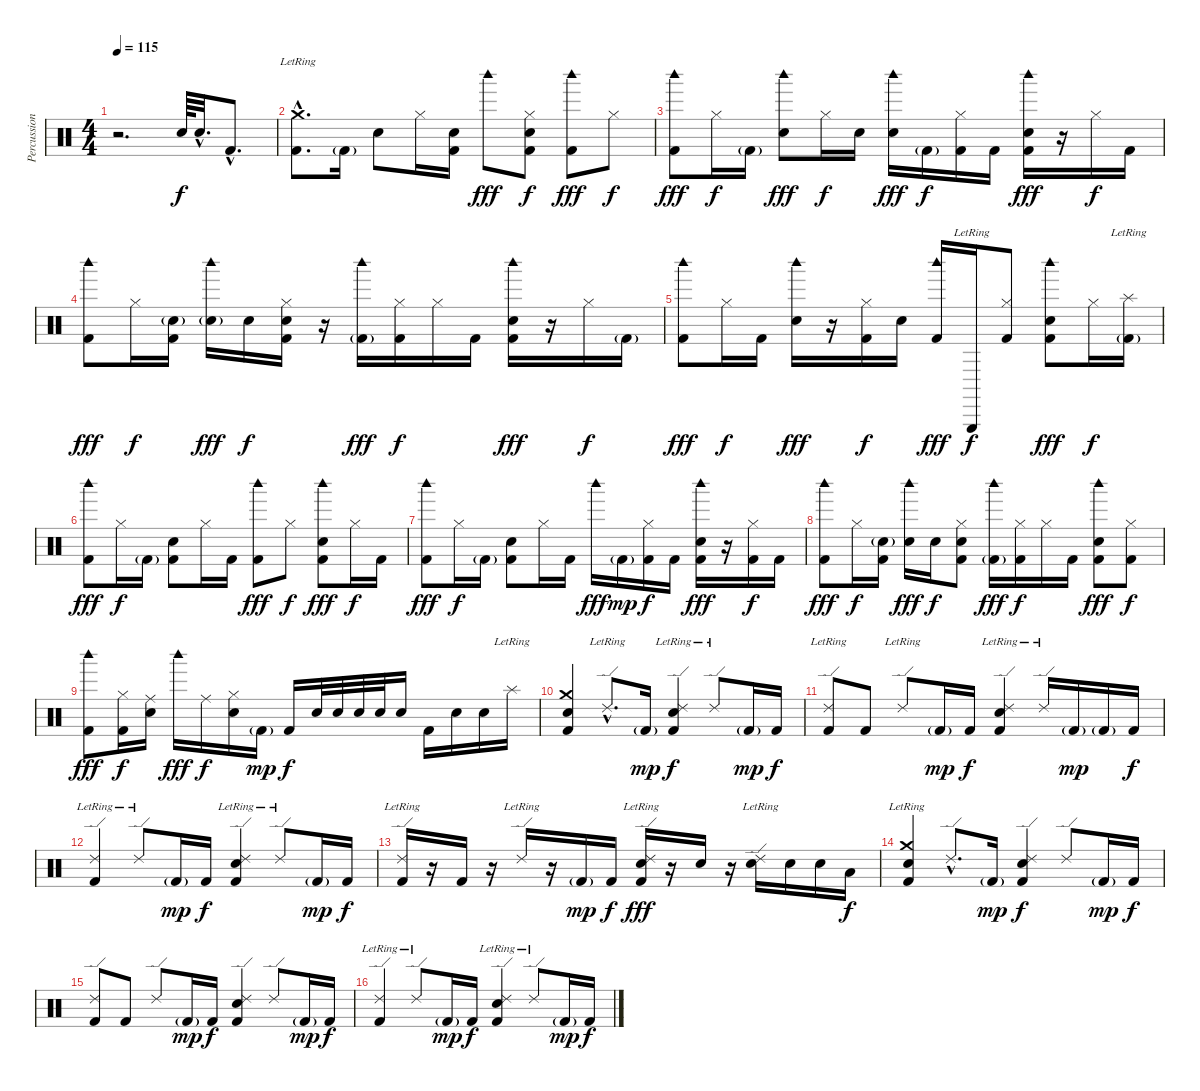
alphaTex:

\track ("Percussion" "Percussion") {instrument percussion}
\staff {score}
\articulation defaults
\ts (4 4)
\tempo 115
\clef neutral
\ks c
r.2{d dy f} "Electric Snare (hit)".64 "Electric Snare (hit)"{hac}.32{d} "Kick (hit) 2"{hac}.8{d} |
("Crash medium (hit)"{hac lr} "Kick (hit) 2"{hac}).8{d} "Kick (hit) 2"{g}.16 "Snare (hit) 2".8 "Hi-Hat (closed)".16 ("Snare (hit) 2" "Kick (hit) 2").16 "Woodblock high (hit)".8{dy fff} ("Hi-Hat (closed)" "Snare (hit) 2" "Kick (hit) 2").8{dy f} ("Woodblock high (hit)" "Kick (hit) 2").8{dy fff} "Hi-Hat (closed)".8{dy f} |
("Woodblock high (hit)" "Kick (hit) 2").8{dy fff} "Hi-Hat (closed)".16{dy f} "Kick (hit) 2"{g}.16 ("Woodblock high (hit)" "Snare (hit) 2").8{dy fff} "Hi-Hat (closed)".16{dy f} "Snare (hit) 2".16 ("Woodblock high (hit)" "Snare (hit) 2").16{dy fff} "Kick (hit) 2"{g}.16{dy f} ("Hi-Hat (closed)" "Kick (hit) 2").16 "Kick (hit) 2".16 ("Woodblock high (hit)" "Snare (hit) 2" "Kick (hit) 2").16{dy fff} r.16 "Hi-Hat (closed)".16{dy f} "Kick (hit) 2".16 |
("Woodblock high (hit)" "Kick (hit) 2").8{dy fff} "Hi-Hat (closed)".16{dy f} ("Snare (hit) 2"{g} "Kick (hit) 2").16 ("Woodblock high (hit)" "Snare (hit) 2"{g}).16{dy fff} "Snare (hit) 2".16{dy f} ("Hi-Hat (closed)" "Snare (hit) 2" "Kick (hit) 2").16 r.16 ("Woodblock high (hit)" "Kick (hit) 2"{g}).16{dy fff} ("Hi-Hat (closed)" "Kick (hit) 2").16{dy f} "Hi-Hat (closed)".16 "Kick (hit) 2".16 ("Woodblock high (hit)" "Snare (hit) 2" "Kick (hit) 2").16{dy fff} r.16 "Hi-Hat (closed)".16{dy f} "Kick (hit) 2"{g}.16 |
("Woodblock high (hit)" "Kick (hit) 2").8{dy fff} "Hi-Hat (closed)".16{dy f} "Kick (hit) 2".16 ("Woodblock high (hit)" "Snare (hit) 2").16{dy fff} r.16 ("Hi-Hat (closed)" "Kick (hit) 2").16{dy f} "Snare (hit) 2".16 ("Woodblock high (hit)" "Kick (hit) 2"{x}).16{dy fff} "Triangle (hit)"{lr}.16{dy f} ("Hi-Hat (closed)" "Kick (hit) 2").8 ("Woodblock high (hit)" "Snare (hit) 2" "Kick (hit) 2").8{dy fff} "Hi-Hat (closed)".16{dy f} ("Splash (hit)"{lr} "Kick (hit) 2"{g}).16 |
("Woodblock high (hit)" "Kick (hit) 2").8{dy fff} "Hi-Hat (closed)".16{dy f} "Kick (hit) 2"{g}.16 ("Snare (hit) 2" "Kick (hit) 2").8 "Hi-Hat (closed)".16 "Kick (hit) 2".16 ("Woodblock high (hit)" "Kick (hit) 2").8{dy fff} "Hi-Hat (closed)".8{dy f} ("Woodblock high (hit)" "Snare (hit) 2" "Kick (hit) 2").8{dy fff} "Hi-Hat (closed)".16{dy f} "Kick (hit) 2".16 |
("Woodblock high (hit)" "Kick (hit) 2").8{dy fff} "Hi-Hat (closed)".16{dy f} "Kick (hit) 2"{g}.16 ("Snare (hit) 2" "Kick (hit) 2").8 "Hi-Hat (closed)".16 "Kick (hit) 2".16 "Woodblock high (hit)".16{dy fff} "Kick (hit) 2"{g}.16{dy mp} ("Hi-Hat (closed)" "Kick (hit) 2").16{dy f} "Kick (hit) 2".16 ("Woodblock high (hit)" "Snare (hit) 2" "Kick (hit) 2").16{dy fff} r.16 ("Hi-Hat (closed)" "Kick (hit) 2").16{dy f} "Kick (hit) 2".16 |
("Woodblock high (hit)" "Kick (hit) 2").8{dy fff} "Hi-Hat (closed)".16{dy f} ("Snare (hit) 2"{g} "Kick (hit) 2").16 ("Woodblock high (hit)" "Snare (hit) 2").16{dy fff} "Snare (hit) 2".16{dy f} ("Hi-Hat (closed)" "Snare (hit) 2" "Kick (hit) 2").8 ("Woodblock high (hit)" "Kick (hit) 2"{g}).16{dy fff} ("Hi-Hat (closed)" "Kick (hit) 2").16{dy f} "Hi-Hat (closed)".16 "Kick (hit) 2".16 ("Woodblock high (hit)" "Snare (hit) 2" "Kick (hit) 2").8{dy fff} ("Hi-Hat (closed)" "Kick (hit) 2").8{dy f} |
("Woodblock high (hit)" "Kick (hit) 2").8{dy fff} ("Hi-Hat (closed)" "Kick (hit) 2").16{dy f} ("Ride (middle)" "Snare (hit) 2").16 "Woodblock high (hit)".16{dy fff} "Ride (middle)".16{dy f} ("Hi-Hat (closed)" "Snare (hit) 2").16 "Kick (hit) 2"{g}.16{dy mp} "Kick (hit) 2".16{dy f} "Snare (hit) 2".32 "Snare (hit) 2".32 "Snare (hit) 2".32 "Snare (hit) 2".32 "Snare (hit) 2".16 "Kick (hit) 2".16 "Snare (hit) 2".16 "Snare (hit) 2".16 "Splash (hit)"{lr}.16 |
("Crash medium (hit)" "Snare (hit) 2" "Kick (hit) 2").4 "Ride (edge) 2"{hac lr}.8{d} "Kick (hit) 2"{g}.16{dy mp} ("Ride (edge) 2"{lr} "Snare (hit) 2" "Kick (hit) 2").4{dy f} "Ride (edge) 2"{lr}.8 "Kick (hit) 2"{g}.16{dy mp} "Kick (hit) 2".16{dy f} |
("Ride (edge) 2"{lr} "Kick (hit) 2").8 "Kick (hit) 2".8 "Ride (edge) 2"{lr}.8 "Kick (hit) 2"{g}.16{dy mp} "Kick (hit) 2".16{dy f} ("Ride (edge) 2"{lr} "Snare (hit) 2" "Kick (hit) 2").4 "Ride (edge) 2"{lr}.16 "Kick (hit) 2"{g}.16{dy mp} "Kick (hit) 2"{g}.16 "Kick (hit) 2".16{dy f} |
("Ride (edge) 2"{lr} "Kick (hit) 2").4 "Ride (edge) 2"{lr}.8 "Kick (hit) 2"{g}.16{dy mp} "Kick (hit) 2".16{dy f} ("Ride (edge) 2"{lr} "Snare (hit) 2" "Kick (hit) 2").4 "Ride (edge) 2"{lr}.8 "Kick (hit) 2"{g}.16{dy mp} "Kick (hit) 2".16{dy f} |
("Ride (edge) 2"{lr} "Kick (hit) 2").16 r.16 "Kick (hit) 2".16 r.16 "Ride (edge) 2"{lr}.16 r.16 "Kick (hit) 2"{g}.16{dy mp} "Kick (hit) 2".16{dy f} ("Ride (edge) 2"{lr} "Snare (hit) 2" "Kick (hit) 2").16{dy fff} r.16 "Snare (hit) 2".16 r.16 ("Ride (edge) 2"{lr} "Snare (hit) 2").16 "Snare (hit) 2".16 "Snare (hit) 2".16 "Low Floor Tom (hit)".16{dy f} |
("Crash medium (hit)"{lr} "Snare (hit) 2" "Kick (hit) 2").4 "Ride (edge) 2"{hac}.8{d} "Kick (hit) 2"{g}.16{dy mp} ("Ride (edge) 2" "Snare (hit) 2" "Kick (hit) 2").4{dy f} "Ride (edge) 2".8 "Kick (hit) 2"{g}.16{dy mp} "Kick (hit) 2".16{dy f} |
("Ride (edge) 2" "Kick (hit) 2").8 "Kick (hit) 2".8 "Ride (edge) 2".8 "Kick (hit) 2"{g}.16{dy mp} "Kick (hit) 2".16{dy f} ("Ride (edge) 2" "Snare (hit) 2" "Kick (hit) 2").4 "Ride (edge) 2".8 "Kick (hit) 2"{g}.16{dy mp} "Kick (hit) 2".16{dy f} |
("Ride (edge) 2"{lr} "Kick (hit) 2").4 "Ride (edge) 2"{lr}.8 "Kick (hit) 2"{g}.16{dy mp} "Kick (hit) 2".16{dy f} ("Ride (edge) 2"{lr} "Snare (hit) 2" "Kick (hit) 2").4 "Ride (edge) 2"{lr}.8 "Kick (hit) 2"{g}.16{dy mp} "Kick (hit) 2".16{dy f}
